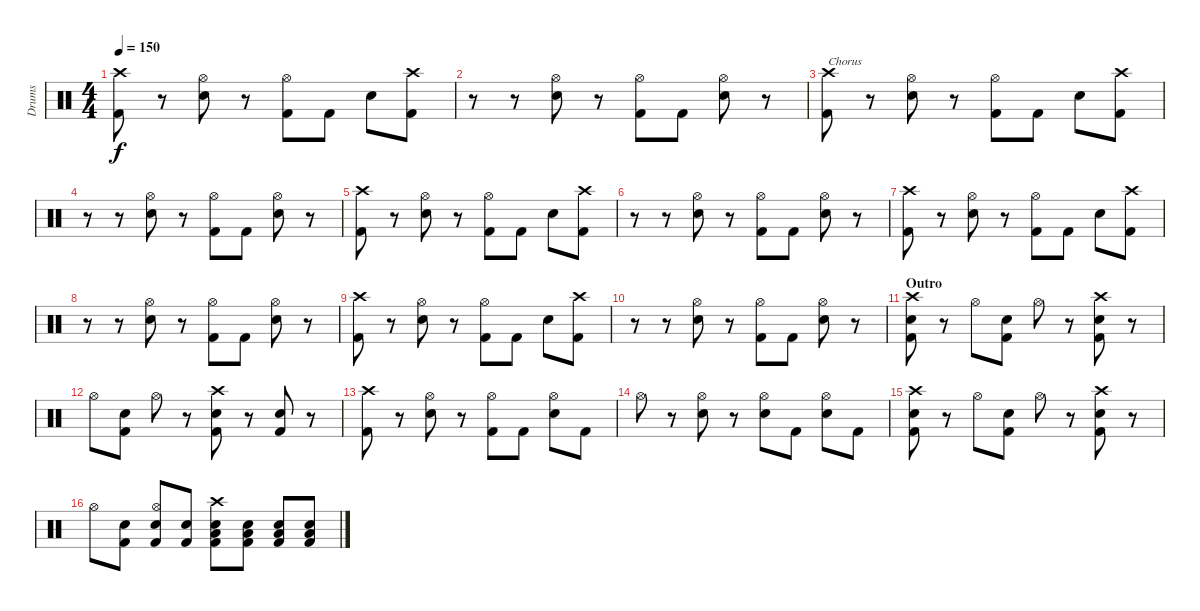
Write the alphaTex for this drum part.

\track ("Drums" "Drums") {instrument percussion}
\staff {score}
\articulation defaults
\ts (4 4)
\tempo 150
\clef neutral
\ks c
("Crash high (hit)" "Kick (hit) 2").8{dy f} r.8 ("Hi-Hat (open)" "Electric Snare (hit)").8 r.8 ("Hi-Hat (open)" "Kick (hit) 2").8 "Kick (hit) 2".8 "Electric Snare (hit)".8 ("Crash high (hit)" "Kick (hit) 2").8 |
r.8 r.8 ("Hi-Hat (open)" "Electric Snare (hit)").8 r.8 ("Hi-Hat (open)" "Kick (hit) 2").8 "Kick (hit) 2".8 ("Hi-Hat (open)" "Electric Snare (hit)").8 r.8 |
("Crash high (hit)" "Kick (hit) 2").8{txt "Chorus"} r.8 ("Hi-Hat (open)" "Electric Snare (hit)").8 r.8 ("Hi-Hat (open)" "Kick (hit) 2").8 "Kick (hit) 2".8 "Electric Snare (hit)".8 ("Crash high (hit)" "Kick (hit) 2").8 |
r.8 r.8 ("Hi-Hat (open)" "Electric Snare (hit)").8 r.8 ("Hi-Hat (open)" "Kick (hit) 2").8 "Kick (hit) 2".8 ("Hi-Hat (open)" "Electric Snare (hit)").8 r.8 |
("Crash high (hit)" "Kick (hit) 2").8 r.8 ("Hi-Hat (open)" "Electric Snare (hit)").8 r.8 ("Hi-Hat (open)" "Kick (hit) 2").8 "Kick (hit) 2".8 "Electric Snare (hit)".8 ("Crash high (hit)" "Kick (hit) 2").8 |
r.8 r.8 ("Hi-Hat (open)" "Electric Snare (hit)").8 r.8 ("Hi-Hat (open)" "Kick (hit) 2").8 "Kick (hit) 2".8 ("Hi-Hat (open)" "Electric Snare (hit)").8 r.8 |
("Crash high (hit)" "Kick (hit) 2").8 r.8 ("Hi-Hat (open)" "Electric Snare (hit)").8 r.8 ("Hi-Hat (open)" "Kick (hit) 2").8 "Kick (hit) 2".8 "Electric Snare (hit)".8 ("Crash high (hit)" "Kick (hit) 2").8 |
r.8 r.8 ("Hi-Hat (open)" "Electric Snare (hit)").8 r.8 ("Hi-Hat (open)" "Kick (hit) 2").8 "Kick (hit) 2".8 ("Hi-Hat (open)" "Electric Snare (hit)").8 r.8 |
("Crash high (hit)" "Kick (hit) 2").8 r.8 ("Hi-Hat (open)" "Electric Snare (hit)").8 r.8 ("Hi-Hat (open)" "Kick (hit) 2").8 "Kick (hit) 2".8 "Electric Snare (hit)".8 ("Crash high (hit)" "Kick (hit) 2").8 |
r.8 r.8 ("Hi-Hat (open)" "Electric Snare (hit)").8 r.8 ("Hi-Hat (open)" "Kick (hit) 2").8 "Kick (hit) 2".8 ("Hi-Hat (open)" "Electric Snare (hit)").8 r.8 |
\section ("" "Outro")
("Crash high (hit)" "Electric Snare (hit)" "Kick (hit) 2").8 r.8 "Hi-Hat (open)".8 ("Electric Snare (hit)" "Kick (hit) 2").8 "Hi-Hat (open)".8 r.8 ("Crash high (hit)" "Electric Snare (hit)" "Kick (hit) 2").8 r.8 |
"Hi-Hat (open)".8 ("Electric Snare (hit)" "Kick (hit) 2").8 "Hi-Hat (open)".8 r.8 ("Crash high (hit)" "Electric Snare (hit)" "Kick (hit) 2").8 r.8 ("Electric Snare (hit)" "Kick (hit) 2").8 r.8 |
("Crash high (hit)" "Kick (hit) 2").8 r.8 ("Hi-Hat (open)" "Electric Snare (hit)").8 r.8 ("Hi-Hat (open)" "Kick (hit) 2").8 "Kick (hit) 2".8 ("Hi-Hat (open)" "Electric Snare (hit)").8 "Kick (hit) 2".8 |
"Hi-Hat (open)".8 r.8 ("Hi-Hat (open)" "Electric Snare (hit)").8 r.8 ("Hi-Hat (open)" "Electric Snare (hit)").8 "Kick (hit) 2".8 ("Hi-Hat (open)" "Electric Snare (hit)").8 "Kick (hit) 2".8 |
("Crash high (hit)" "Electric Snare (hit)" "Kick (hit) 2").8 r.8 "Hi-Hat (open)".8 ("Electric Snare (hit)" "Kick (hit) 2").8 "Hi-Hat (open)".8 r.8 ("Crash high (hit)" "Electric Snare (hit)" "Kick (hit) 2").8 r.8 |
"Hi-Hat (open)".8 ("Electric Snare (hit)" "Kick (hit) 2").8 ("Hi-Hat (open)" "Electric Snare (hit)" "Kick (hit) 2").8 ("Electric Snare (hit)" "Kick (hit) 2").8 ("Crash high (hit)" "Low Tom (hit)" "Electric Snare (hit)" "Kick (hit) 2").8 ("Low Tom (hit)" "Electric Snare (hit)" "Kick (hit) 2").8 ("Low Floor Tom (hit)" "Electric Snare (hit)" "Kick (hit) 2").8 ("Low Floor Tom (hit)" "Electric Snare (hit)" "Kick (hit) 2").8
